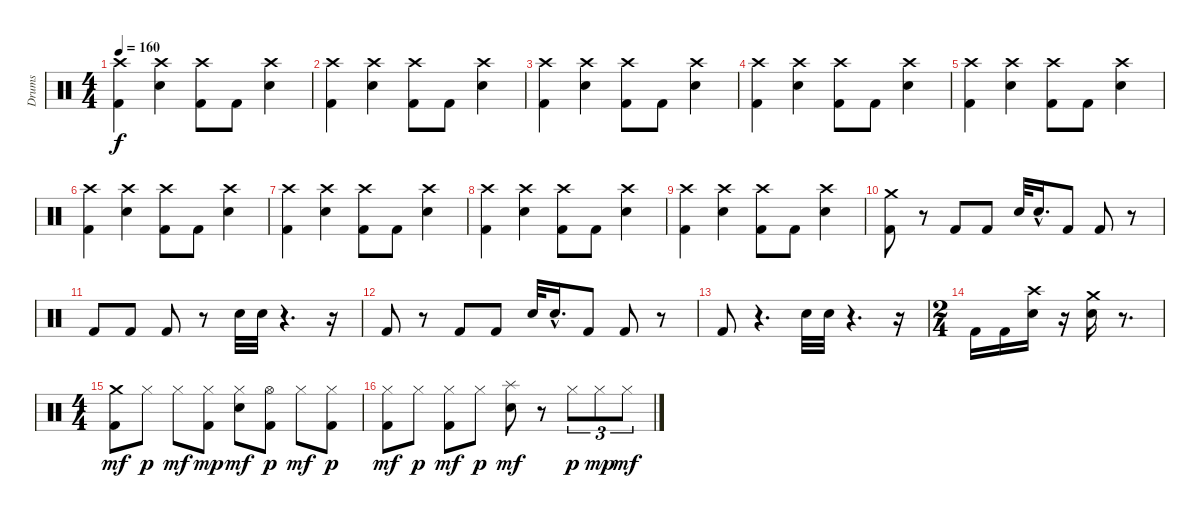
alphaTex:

\track ("Drums" "Drums") {instrument percussion}
\staff {score}
\articulation defaults
\ts (4 4)
\tempo 160
\clef neutral
\ks c
("Kick (hit) 2" "Crash high (hit)").4{dy f} ("Electric Snare (hit)" "Crash high (hit)").4 ("Kick (hit) 2" "Crash high (hit)").8 "Kick (hit) 2".8 ("Electric Snare (hit)" "Crash high (hit)").4 |
("Kick (hit) 2" "Crash high (hit)").4 ("Electric Snare (hit)" "Crash high (hit)").4 ("Kick (hit) 2" "Crash high (hit)").8 "Kick (hit) 2".8 ("Electric Snare (hit)" "Crash high (hit)").4 |
("Kick (hit) 2" "Crash high (hit)").4 ("Electric Snare (hit)" "Crash high (hit)").4 ("Kick (hit) 2" "Crash high (hit)").8 "Kick (hit) 2".8 ("Electric Snare (hit)" "Crash high (hit)").4 |
("Kick (hit) 2" "Crash high (hit)").4 ("Electric Snare (hit)" "Crash high (hit)").4 ("Kick (hit) 2" "Crash high (hit)").8 "Kick (hit) 2".8 ("Electric Snare (hit)" "Crash high (hit)").4 |
("Kick (hit) 2" "Crash high (hit)").4 ("Electric Snare (hit)" "Crash high (hit)").4 ("Kick (hit) 2" "Crash high (hit)").8 "Kick (hit) 2".8 ("Electric Snare (hit)" "Crash high (hit)").4 |
("Kick (hit) 2" "Crash high (hit)").4 ("Electric Snare (hit)" "Crash high (hit)").4 ("Kick (hit) 2" "Crash high (hit)").8 "Kick (hit) 2".8 ("Electric Snare (hit)" "Crash high (hit)").4 |
("Kick (hit) 2" "Crash high (hit)").4 ("Electric Snare (hit)" "Crash high (hit)").4 ("Kick (hit) 2" "Crash high (hit)").8 "Kick (hit) 2".8 ("Electric Snare (hit)" "Crash high (hit)").4 |
("Kick (hit) 2" "Crash high (hit)").4 ("Electric Snare (hit)" "Crash high (hit)").4 ("Kick (hit) 2" "Crash high (hit)").8 "Kick (hit) 2".8 ("Electric Snare (hit)" "Crash high (hit)").4 |
("Kick (hit) 2" "Crash high (hit)").4 ("Electric Snare (hit)" "Crash high (hit)").4 ("Kick (hit) 2" "Crash high (hit)").8 "Kick (hit) 2".8 ("Electric Snare (hit)" "Crash high (hit)").4 |
("Crash medium (hit)" "Kick (hit) 2").8 r.8 "Kick (hit) 2".8 "Kick (hit) 2".8 "Electric Snare (hit)".32 "Electric Snare (hit)"{hac}.16{d} "Kick (hit) 2".8 "Kick (hit) 2".8 r.8 |
"Kick (hit) 2".8 "Kick (hit) 2".8 "Kick (hit) 2".8 r.8 "Electric Snare (hit)".32 "Electric Snare (hit)".32 r.4{d} r.16 |
"Kick (hit) 2".8 r.8 "Kick (hit) 2".8 "Kick (hit) 2".8 "Electric Snare (hit)".32 "Electric Snare (hit)"{hac}.16{d} "Kick (hit) 2".8 "Kick (hit) 2".8 r.8 |
"Kick (hit) 2".8 r.4{d} "Electric Snare (hit)".32 "Electric Snare (hit)".32 r.4{d} r.16 |
\ts (2 4)
"Kick (hit) 2".16 "Kick (hit) 2".16 ("Electric Snare (hit)" "Crash high (hit)").16 r.16 ("Electric Snare (hit)" "Crash medium (hit)").16 r.8{d} |
\ts (4 4)
("Kick (hit) 2" "Crash medium (hit)").8{dy mf} "Hi-Hat (closed)".8{dy p} "Hi-Hat (closed)".8{dy mf} ("Kick (hit) 2" "Hi-Hat (closed)").8{dy mp} ("Electric Snare (hit)" "Hi-Hat (closed)").8{dy mf} ("Kick (hit) 2" "Hi-Hat (open)").8{dy p} "Hi-Hat (closed)".8{dy mf} ("Kick (hit) 2" "Hi-Hat (closed)").8{dy p} |
("Kick (hit) 2" "Hi-Hat (closed)").8{dy mf} "Hi-Hat (closed)".8{dy p} ("Kick (hit) 2" "Hi-Hat (closed)").8{dy mf} "Hi-Hat (closed)".8{dy p} ("Electric Snare (hit)" "Splash (hit)").8{dy mf} r.8 "Hi-Hat (closed)".8{tu (3 2) dy p} "Hi-Hat (closed)".8{tu (3 2) dy mp} "Hi-Hat (closed)".8{tu (3 2) dy mf}
